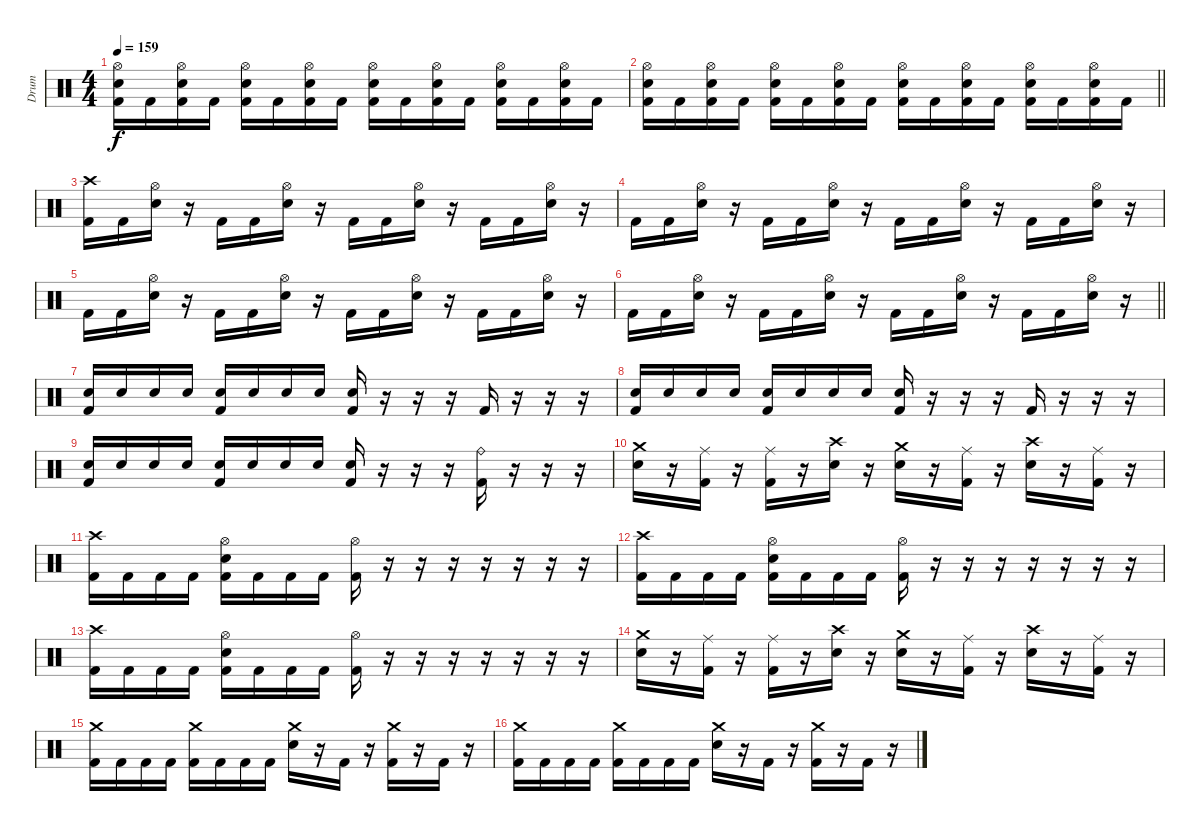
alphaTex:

\track ("Drum" "Drum") {instrument percussion}
\staff {score}
\articulation defaults
\ts (4 4)
\tempo 159
\clef neutral
\ks c
("Hi-Hat (open)" "Snare (hit) 2" "Kick (hit) 2").16{dy f} "Kick (hit) 2".16 ("Hi-Hat (open)" "Snare (hit) 2" "Kick (hit) 2").16 "Kick (hit) 2".16 ("Hi-Hat (open)" "Snare (hit) 2" "Kick (hit) 2").16 "Kick (hit) 2".16 ("Hi-Hat (open)" "Snare (hit) 2" "Kick (hit) 2").16 "Kick (hit) 2".16 ("Hi-Hat (open)" "Snare (hit) 2" "Kick (hit) 2").16 "Kick (hit) 2".16 ("Hi-Hat (open)" "Snare (hit) 2" "Kick (hit) 2").16 "Kick (hit) 2".16 ("Hi-Hat (open)" "Snare (hit) 2" "Kick (hit) 2").16 "Kick (hit) 2".16 ("Hi-Hat (open)" "Snare (hit) 2" "Kick (hit) 2").16 "Kick (hit) 2".16 |
\barLineRight lightlight
("Hi-Hat (open)" "Snare (hit) 2" "Kick (hit) 2").16 "Kick (hit) 2".16 ("Hi-Hat (open)" "Snare (hit) 2" "Kick (hit) 2").16 "Kick (hit) 2".16 ("Hi-Hat (open)" "Snare (hit) 2" "Kick (hit) 2").16 "Kick (hit) 2".16 ("Hi-Hat (open)" "Snare (hit) 2" "Kick (hit) 2").16 "Kick (hit) 2".16 ("Hi-Hat (open)" "Snare (hit) 2" "Kick (hit) 2").16 "Kick (hit) 2".16 ("Hi-Hat (open)" "Snare (hit) 2" "Kick (hit) 2").16 "Kick (hit) 2".16 ("Hi-Hat (open)" "Snare (hit) 2" "Kick (hit) 2").16 "Kick (hit) 2".16 ("Hi-Hat (open)" "Snare (hit) 2" "Kick (hit) 2").16 "Kick (hit) 2".16 |
\section ("" "")
("Crash high (hit)" "Kick (hit) 2").16 "Kick (hit) 2".16 ("Hi-Hat (open)" "Snare (hit) 2").16 r.16 "Kick (hit) 2".16 "Kick (hit) 2".16 ("Hi-Hat (open)" "Snare (hit) 2").16 r.16 "Kick (hit) 2".16 "Kick (hit) 2".16 ("Hi-Hat (open)" "Snare (hit) 2").16 r.16 "Kick (hit) 2".16 "Kick (hit) 2".16 ("Hi-Hat (open)" "Snare (hit) 2").16 r.16 |
"Kick (hit) 2".16 "Kick (hit) 2".16 ("Hi-Hat (open)" "Snare (hit) 2").16 r.16 "Kick (hit) 2".16 "Kick (hit) 2".16 ("Hi-Hat (open)" "Snare (hit) 2").16 r.16 "Kick (hit) 2".16 "Kick (hit) 2".16 ("Hi-Hat (open)" "Snare (hit) 2").16 r.16 "Kick (hit) 2".16 "Kick (hit) 2".16 ("Hi-Hat (open)" "Snare (hit) 2").16 r.16 |
"Kick (hit) 2".16 "Kick (hit) 2".16 ("Hi-Hat (open)" "Snare (hit) 2").16 r.16 "Kick (hit) 2".16 "Kick (hit) 2".16 ("Hi-Hat (open)" "Snare (hit) 2").16 r.16 "Kick (hit) 2".16 "Kick (hit) 2".16 ("Hi-Hat (open)" "Snare (hit) 2").16 r.16 "Kick (hit) 2".16 "Kick (hit) 2".16 ("Hi-Hat (open)" "Snare (hit) 2").16 r.16 |
\barLineRight lightlight "Kick (hit) 2".16 "Kick (hit) 2".16
("Hi-Hat (open)" "Snare (hit) 2").16 r.16 "Kick (hit) 2".16 "Kick (hit) 2".16 ("Hi-Hat (open)" "Snare (hit) 2").16 r.16 "Kick (hit) 2".16 "Kick (hit) 2".16 ("Hi-Hat (open)" "Snare (hit) 2").16 r.16 "Kick (hit) 2".16 "Kick (hit) 2".16 ("Hi-Hat (open)" "Snare (hit) 2").16 r.16 |
\section ("" "")
("Kick (hit) 2" "Snare (hit) 2").16 "Snare (hit) 2".16 "Snare (hit) 2".16 "Snare (hit) 2".16 ("Kick (hit) 2" "Snare (hit) 2").16 "Snare (hit) 2".16 "Snare (hit) 2".16 "Snare (hit) 2".16 ("Kick (hit) 2" "Snare (hit) 2").16 r.16 r.16 r.16 "Kick (hit) 2".16 r.16 r.16 r.16 |
("Kick (hit) 2" "Snare (hit) 2").16 "Snare (hit) 2".16 "Snare (hit) 2".16 "Snare (hit) 2".16 ("Kick (hit) 2" "Snare (hit) 2").16 "Snare (hit) 2".16 "Snare (hit) 2".16 "Snare (hit) 2".16 ("Kick (hit) 2" "Snare (hit) 2").16 r.16 r.16 r.16 "Kick (hit) 2".16 r.16 r.16 r.16 |
("Kick (hit) 2" "Snare (hit) 2").16 "Snare (hit) 2".16 "Snare (hit) 2".16 "Snare (hit) 2".16 ("Kick (hit) 2" "Snare (hit) 2").16 "Snare (hit) 2".16 "Snare (hit) 2".16 "Snare (hit) 2".16 ("Kick (hit) 2" "Snare (hit) 2").16 r.16 r.16 r.16 ("Ride (bell)" "Kick (hit) 2").16 r.16 r.16 r.16 |
("Crash medium (hit)" "Snare (hit) 2").16 r.16 ("Ride (middle)" "Kick (hit) 2").16 r.16 ("Ride (middle)" "Kick (hit) 2").16 r.16 ("Crash high (hit)" "Snare (hit) 2").16 r.16 ("Crash medium (hit)" "Snare (hit) 2").16 r.16 ("Ride (middle)" "Kick (hit) 2").16 r.16 ("Crash high (hit)" "Snare (hit) 2").16 r.16 ("Ride (middle)" "Kick (hit) 2").16 r.16 |
("Crash high (hit)" "Kick (hit) 2").16 "Kick (hit) 2".16 "Kick (hit) 2".16 "Kick (hit) 2".16 ("Hi-Hat (open)" "Snare (hit) 2" "Kick (hit) 2").16 "Kick (hit) 2".16 "Kick (hit) 2".16 "Kick (hit) 2".16 ("Hi-Hat (open)" "Kick (hit) 2").16 r.16 r.16 r.16 r.16 r.16 r.16 r.16 |
("Crash high (hit)" "Kick (hit) 2").16 "Kick (hit) 2".16 "Kick (hit) 2".16 "Kick (hit) 2".16 ("Hi-Hat (open)" "Snare (hit) 2" "Kick (hit) 2").16 "Kick (hit) 2".16 "Kick (hit) 2".16 "Kick (hit) 2".16 ("Hi-Hat (open)" "Kick (hit) 2").16 r.16 r.16 r.16 r.16 r.16 r.16 r.16 |
("Crash high (hit)" "Kick (hit) 2").16 "Kick (hit) 2".16 "Kick (hit) 2".16 "Kick (hit) 2".16 ("Hi-Hat (open)" "Snare (hit) 2" "Kick (hit) 2").16 "Kick (hit) 2".16 "Kick (hit) 2".16 "Kick (hit) 2".16 ("Hi-Hat (open)" "Kick (hit) 2").16 r.16 r.16 r.16 r.16 r.16 r.16 r.16 |
("Crash medium (hit)" "Snare (hit) 2").16 r.16 ("Ride (middle)" "Kick (hit) 2").16 r.16 ("Ride (middle)" "Kick (hit) 2").16 r.16 ("Crash high (hit)" "Snare (hit) 2").16 r.16 ("Crash medium (hit)" "Snare (hit) 2").16 r.16 ("Ride (middle)" "Kick (hit) 2").16 r.16 ("Crash high (hit)" "Snare (hit) 2").16 r.16 ("Ride (middle)" "Kick (hit) 2").16 r.16 |
("Crash medium (hit)" "Kick (hit) 2").16 "Kick (hit) 2".16 "Kick (hit) 2".16 "Kick (hit) 2".16 ("Crash medium (hit)" "Kick (hit) 2").16 "Kick (hit) 2".16 "Kick (hit) 2".16 "Kick (hit) 2".16 ("Crash medium (hit)" "Snare (hit) 2").16 r.16 "Kick (hit) 2".16 r.16 ("Crash medium (hit)" "Kick (hit) 2").16 r.16 "Kick (hit) 2".16 r.16 |
("Crash medium (hit)" "Kick (hit) 2").16 "Kick (hit) 2".16 "Kick (hit) 2".16 "Kick (hit) 2".16 ("Crash medium (hit)" "Kick (hit) 2").16 "Kick (hit) 2".16 "Kick (hit) 2".16 "Kick (hit) 2".16 ("Crash medium (hit)" "Snare (hit) 2").16 r.16 "Kick (hit) 2".16 r.16 ("Crash medium (hit)" "Kick (hit) 2").16 r.16 "Kick (hit) 2".16 r.16
